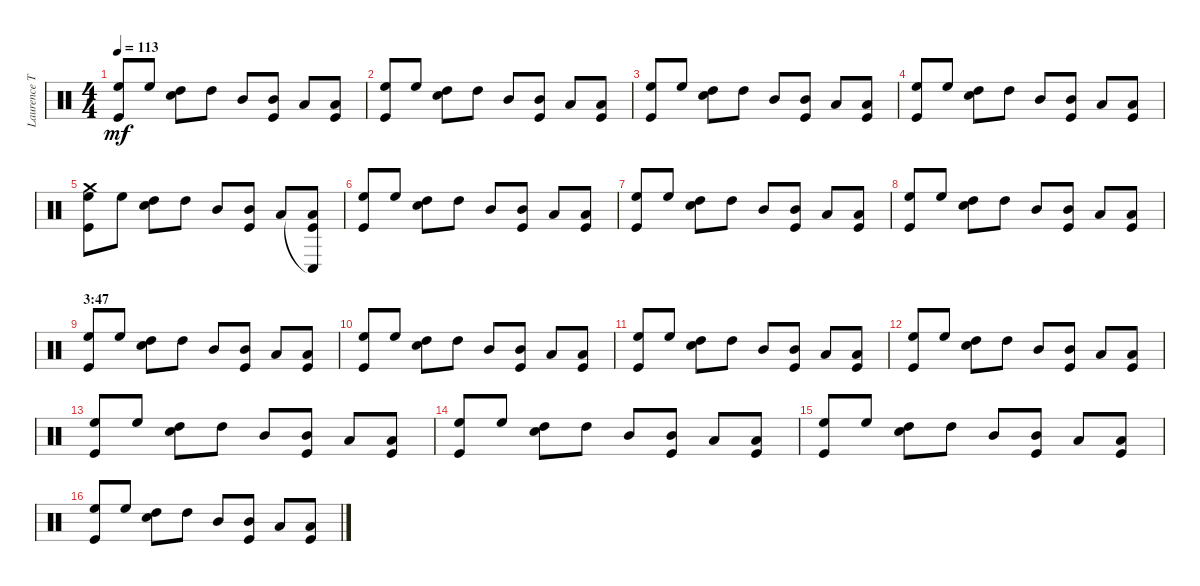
\track ("Laurence Tolhurst (drums)" "Laurence T") {instrument percussion}
\staff {score}
\articulation defaults
\ts (4 4)
\tempo 113
\clef neutral
\ks c
("High Floor Tom (hit)" "Kick (hit)").8{dy mf} "High Floor Tom (hit)".8 ("High Tom (hit)" "Snare (hit) 2").8 "High Tom (hit)".8 "Mid Tom (hit)".8 ("Mid Tom (hit)" "Kick (hit)").8 "Low Tom (hit)".8 ("Low Tom (hit)" "Kick (hit)").8 |
("High Floor Tom (hit)" "Kick (hit)").8 "High Floor Tom (hit)".8 ("High Tom (hit)" "Snare (hit) 2").8 "High Tom (hit)".8 "Mid Tom (hit)".8 ("Mid Tom (hit)" "Kick (hit)").8 "Low Tom (hit)".8 ("Low Tom (hit)" "Kick (hit)").8 |
("High Floor Tom (hit)" "Kick (hit)").8 "High Floor Tom (hit)".8 ("High Tom (hit)" "Snare (hit) 2").8 "High Tom (hit)".8 "Mid Tom (hit)".8 ("Mid Tom (hit)" "Kick (hit)").8 "Low Tom (hit)".8 ("Low Tom (hit)" "Kick (hit)").8 |
("High Floor Tom (hit)" "Kick (hit)").8 "High Floor Tom (hit)".8 ("High Tom (hit)" "Snare (hit) 2").8 "High Tom (hit)".8 "Mid Tom (hit)".8 ("Mid Tom (hit)" "Kick (hit)").8 "Low Tom (hit)".8 ("Low Tom (hit)" "Kick (hit)").8 |
("Crash medium (hit)" "High Floor Tom (hit)" "Kick (hit)").8 "High Floor Tom (hit)".8 ("High Tom (hit)" "Snare (hit) 2").8 "High Tom (hit)".8 "Mid Tom (hit)".8 ("Mid Tom (hit)" "Kick (hit)").8 "Low Tom (hit)".8 ("Conga low (hit)"{t} "Low Tom (hit)" "Kick (hit)").8 |
("High Floor Tom (hit)" "Kick (hit)").8 "High Floor Tom (hit)".8 ("High Tom (hit)" "Snare (hit) 2").8 "High Tom (hit)".8 "Mid Tom (hit)".8 ("Mid Tom (hit)" "Kick (hit)").8 "Low Tom (hit)".8 ("Low Tom (hit)" "Kick (hit)").8 |
("High Floor Tom (hit)" "Kick (hit)").8 "High Floor Tom (hit)".8 ("High Tom (hit)" "Snare (hit) 2").8 "High Tom (hit)".8 "Mid Tom (hit)".8 ("Mid Tom (hit)" "Kick (hit)").8 "Low Tom (hit)".8 ("Low Tom (hit)" "Kick (hit)").8 |
("High Floor Tom (hit)" "Kick (hit)").8 "High Floor Tom (hit)".8 ("High Tom (hit)" "Snare (hit) 2").8 "High Tom (hit)".8 "Mid Tom (hit)".8 ("Mid Tom (hit)" "Kick (hit)").8 "Low Tom (hit)".8 ("Low Tom (hit)" "Kick (hit)").8 |
\section ("" "3:47")
("High Floor Tom (hit)" "Kick (hit)").8 "High Floor Tom (hit)".8 ("High Tom (hit)" "Snare (hit) 2").8 "High Tom (hit)".8 "Mid Tom (hit)".8 ("Mid Tom (hit)" "Kick (hit)").8 "Low Tom (hit)".8 ("Low Tom (hit)" "Kick (hit)").8 |
("High Floor Tom (hit)" "Kick (hit)").8 "High Floor Tom (hit)".8 ("High Tom (hit)" "Snare (hit) 2").8 "High Tom (hit)".8 "Mid Tom (hit)".8 ("Mid Tom (hit)" "Kick (hit)").8 "Low Tom (hit)".8 ("Low Tom (hit)" "Kick (hit)").8 |
("High Floor Tom (hit)" "Kick (hit)").8 "High Floor Tom (hit)".8 ("High Tom (hit)" "Snare (hit) 2").8 "High Tom (hit)".8 "Mid Tom (hit)".8 ("Mid Tom (hit)" "Kick (hit)").8 "Low Tom (hit)".8 ("Low Tom (hit)" "Kick (hit)").8 |
("High Floor Tom (hit)" "Kick (hit)").8 "High Floor Tom (hit)".8 ("High Tom (hit)" "Snare (hit) 2").8 "High Tom (hit)".8 "Mid Tom (hit)".8 ("Mid Tom (hit)" "Kick (hit)").8 "Low Tom (hit)".8 ("Low Tom (hit)" "Kick (hit)").8 |
("High Floor Tom (hit)" "Kick (hit)").8 "High Floor Tom (hit)".8 ("High Tom (hit)" "Snare (hit) 2").8 "High Tom (hit)".8 "Mid Tom (hit)".8 ("Mid Tom (hit)" "Kick (hit)").8 "Low Tom (hit)".8 ("Low Tom (hit)" "Kick (hit)").8 |
("High Floor Tom (hit)" "Kick (hit)").8 "High Floor Tom (hit)".8 ("High Tom (hit)" "Snare (hit) 2").8 "High Tom (hit)".8 "Mid Tom (hit)".8 ("Mid Tom (hit)" "Kick (hit)").8 "Low Tom (hit)".8 ("Low Tom (hit)" "Kick (hit)").8 |
("High Floor Tom (hit)" "Kick (hit)").8 "High Floor Tom (hit)".8 ("High Tom (hit)" "Snare (hit) 2").8 "High Tom (hit)".8 "Mid Tom (hit)".8 ("Mid Tom (hit)" "Kick (hit)").8 "Low Tom (hit)".8 ("Low Tom (hit)" "Kick (hit)").8 |
("High Floor Tom (hit)" "Kick (hit)").8 "High Floor Tom (hit)".8 ("High Tom (hit)" "Snare (hit) 2").8 "High Tom (hit)".8 "Mid Tom (hit)".8 ("Mid Tom (hit)" "Kick (hit)").8 "Low Tom (hit)".8 ("Low Tom (hit)" "Kick (hit)").8
